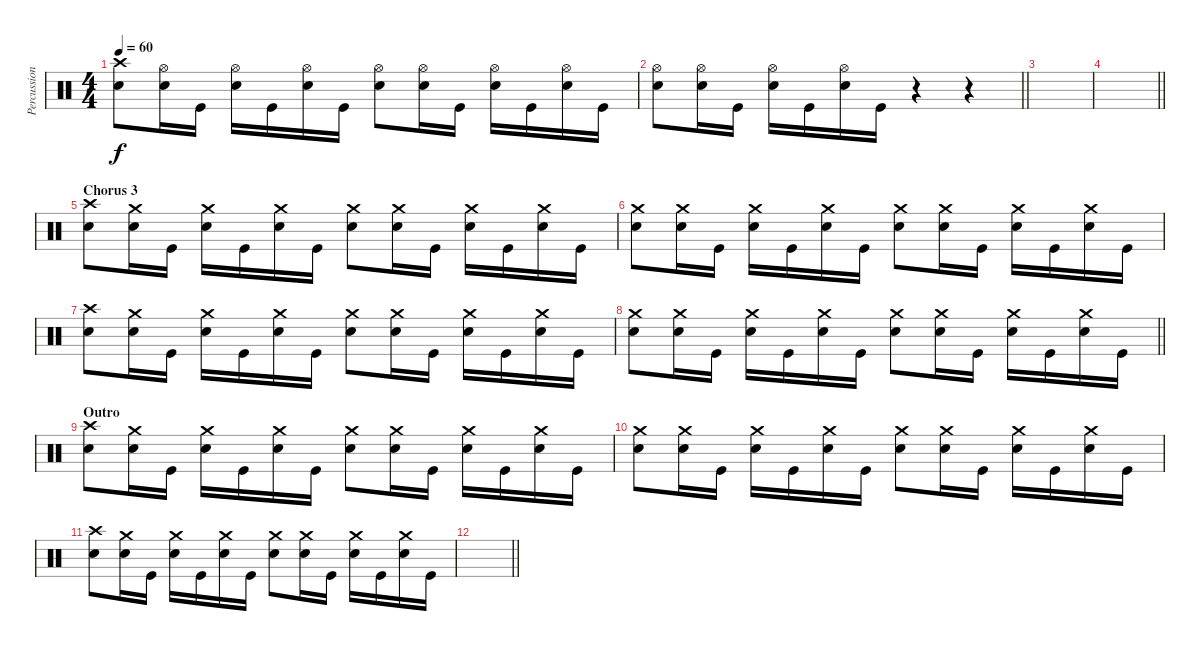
\track ("Percussions" "Percussion") {instrument percussion}
\staff {score}
\articulation defaults
\ts (4 4)
\tempo 60
\clef neutral
\ks c
("Snare (hit) 2" "Crash high (hit)").8{dy f} ("Snare (hit) 2" "Hi-Hat (open)").16 "Kick (hit)".16 ("Snare (hit) 2" "Hi-Hat (open)").16 "Kick (hit)".16 ("Snare (hit) 2" "Hi-Hat (open)").16 "Kick (hit)".16 ("Snare (hit) 2" "Hi-Hat (open)").8 ("Snare (hit) 2" "Hi-Hat (open)").16 "Kick (hit)".16 ("Snare (hit) 2" "Hi-Hat (open)").16 "Kick (hit)".16 ("Snare (hit) 2" "Hi-Hat (open)").16 "Kick (hit)".16 |
\barLineRight lightlight
("Snare (hit) 2" "Hi-Hat (open)").8 ("Snare (hit) 2" "Hi-Hat (open)").16 "Kick (hit)".16 ("Snare (hit) 2" "Hi-Hat (open)").16 "Kick (hit)".16 ("Snare (hit) 2" "Hi-Hat (open)").16 "Kick (hit)".16 r.4 r.4 |
|
\barLineRight lightlight
|
\section ("" "Chorus 3")
("Snare (hit) 2" "Crash high (hit)").8 ("Snare (hit) 2" "Crash medium (hit)").16 "Kick (hit)".16 ("Snare (hit) 2" "Crash medium (hit)").16 "Kick (hit)".16 ("Snare (hit) 2" "Crash medium (hit)").16 "Kick (hit)".16 ("Snare (hit) 2" "Crash medium (hit)").8 ("Snare (hit) 2" "Crash medium (hit)").16 "Kick (hit)".16 ("Snare (hit) 2" "Crash medium (hit)").16 "Kick (hit)".16 ("Snare (hit) 2" "Crash medium (hit)").16 "Kick (hit)".16 |
("Snare (hit) 2" "Crash medium (hit)").8 ("Snare (hit) 2" "Crash medium (hit)").16 "Kick (hit)".16 ("Snare (hit) 2" "Crash medium (hit)").16 "Kick (hit)".16 ("Snare (hit) 2" "Crash medium (hit)").16 "Kick (hit)".16 ("Snare (hit) 2" "Crash medium (hit)").8 ("Snare (hit) 2" "Crash medium (hit)").16 "Kick (hit)".16 ("Snare (hit) 2" "Crash medium (hit)").16 "Kick (hit)".16 ("Snare (hit) 2" "Crash medium (hit)").16 "Kick (hit)".16 |
("Snare (hit) 2" "Crash high (hit)").8 ("Snare (hit) 2" "Crash medium (hit)").16 "Kick (hit)".16 ("Snare (hit) 2" "Crash medium (hit)").16 "Kick (hit)".16 ("Snare (hit) 2" "Crash medium (hit)").16 "Kick (hit)".16 ("Snare (hit) 2" "Crash medium (hit)").8 ("Snare (hit) 2" "Crash medium (hit)").16 "Kick (hit)".16 ("Snare (hit) 2" "Crash medium (hit)").16 "Kick (hit)".16 ("Snare (hit) 2" "Crash medium (hit)").16 "Kick (hit)".16 |
\barLineRight lightlight
("Snare (hit) 2" "Crash medium (hit)").8 ("Snare (hit) 2" "Crash medium (hit)").16 "Kick (hit)".16 ("Snare (hit) 2" "Crash medium (hit)").16 "Kick (hit)".16 ("Snare (hit) 2" "Crash medium (hit)").16 "Kick (hit)".16 ("Snare (hit) 2" "Crash medium (hit)").8 ("Snare (hit) 2" "Crash medium (hit)").16 "Kick (hit)".16 ("Snare (hit) 2" "Crash medium (hit)").16 "Kick (hit)".16 ("Snare (hit) 2" "Crash medium (hit)").16 "Kick (hit)".16 |
\section ("" "Outro")
("Snare (hit) 2" "Crash high (hit)").8 ("Snare (hit) 2" "Crash medium (hit)").16 "Kick (hit)".16 ("Snare (hit) 2" "Crash medium (hit)").16 "Kick (hit)".16 ("Snare (hit) 2" "Crash medium (hit)").16 "Kick (hit)".16 ("Snare (hit) 2" "Crash medium (hit)").8 ("Snare (hit) 2" "Crash medium (hit)").16 "Kick (hit)".16 ("Snare (hit) 2" "Crash medium (hit)").16 "Kick (hit)".16 ("Snare (hit) 2" "Crash medium (hit)").16 "Kick (hit)".16 |
("Snare (hit) 2" "Crash medium (hit)").8 ("Snare (hit) 2" "Crash medium (hit)").16 "Kick (hit)".16 ("Snare (hit) 2" "Crash medium (hit)").16 "Kick (hit)".16 ("Snare (hit) 2" "Crash medium (hit)").16 "Kick (hit)".16 ("Snare (hit) 2" "Crash medium (hit)").8 ("Snare (hit) 2" "Crash medium (hit)").16 "Kick (hit)".16 ("Snare (hit) 2" "Crash medium (hit)").16 "Kick (hit)".16 ("Snare (hit) 2" "Crash medium (hit)").16 "Kick (hit)".16 |
("Snare (hit) 2" "Crash high (hit)").8 ("Snare (hit) 2" "Crash medium (hit)").16 "Kick (hit)".16 ("Snare (hit) 2" "Crash medium (hit)").16 "Kick (hit)".16 ("Snare (hit) 2" "Crash medium (hit)").16 "Kick (hit)".16 ("Snare (hit) 2" "Crash medium (hit)").8 ("Snare (hit) 2" "Crash medium (hit)").16 "Kick (hit)".16 ("Snare (hit) 2" "Crash medium (hit)").16 "Kick (hit)".16 ("Snare (hit) 2" "Crash medium (hit)").16 "Kick (hit)".16 |
\barLineRight lightlight
